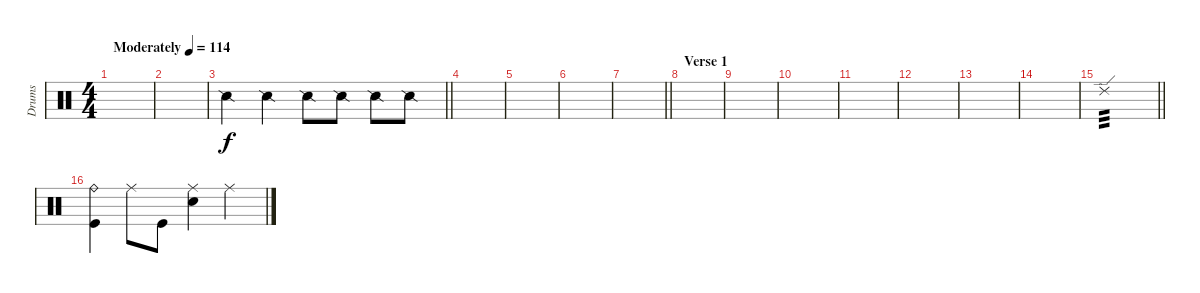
\track ("Drums" "Drums") {instrument percussion}
\staff {score}
\articulation defaults
\ts (4 4)
\tempo (114 "Moderately")
\clef neutral
\ks c
|
|
\barLineRight lightlight "Snare (side stick) 2".4 "Snare (side stick) 2".4 "Snare (side stick) 2".8 "Snare (side stick) 2".8 "Snare (side stick) 2".8 "Snare (side stick) 2".8
|
|
|
|
\barLineRight lightlight
|
\section ("" "Verse 1")
|
|
|
|
|
|
|
\barLineRight lightlight "Ride (edge) 2".1{tp 3}
|
("Ride (bell)" "Kick (hit)").4 "Ride (middle)".8 "Kick (hit)".8 ("Ride (middle)" "Snare (hit) 2").4 "Ride (middle)".4
